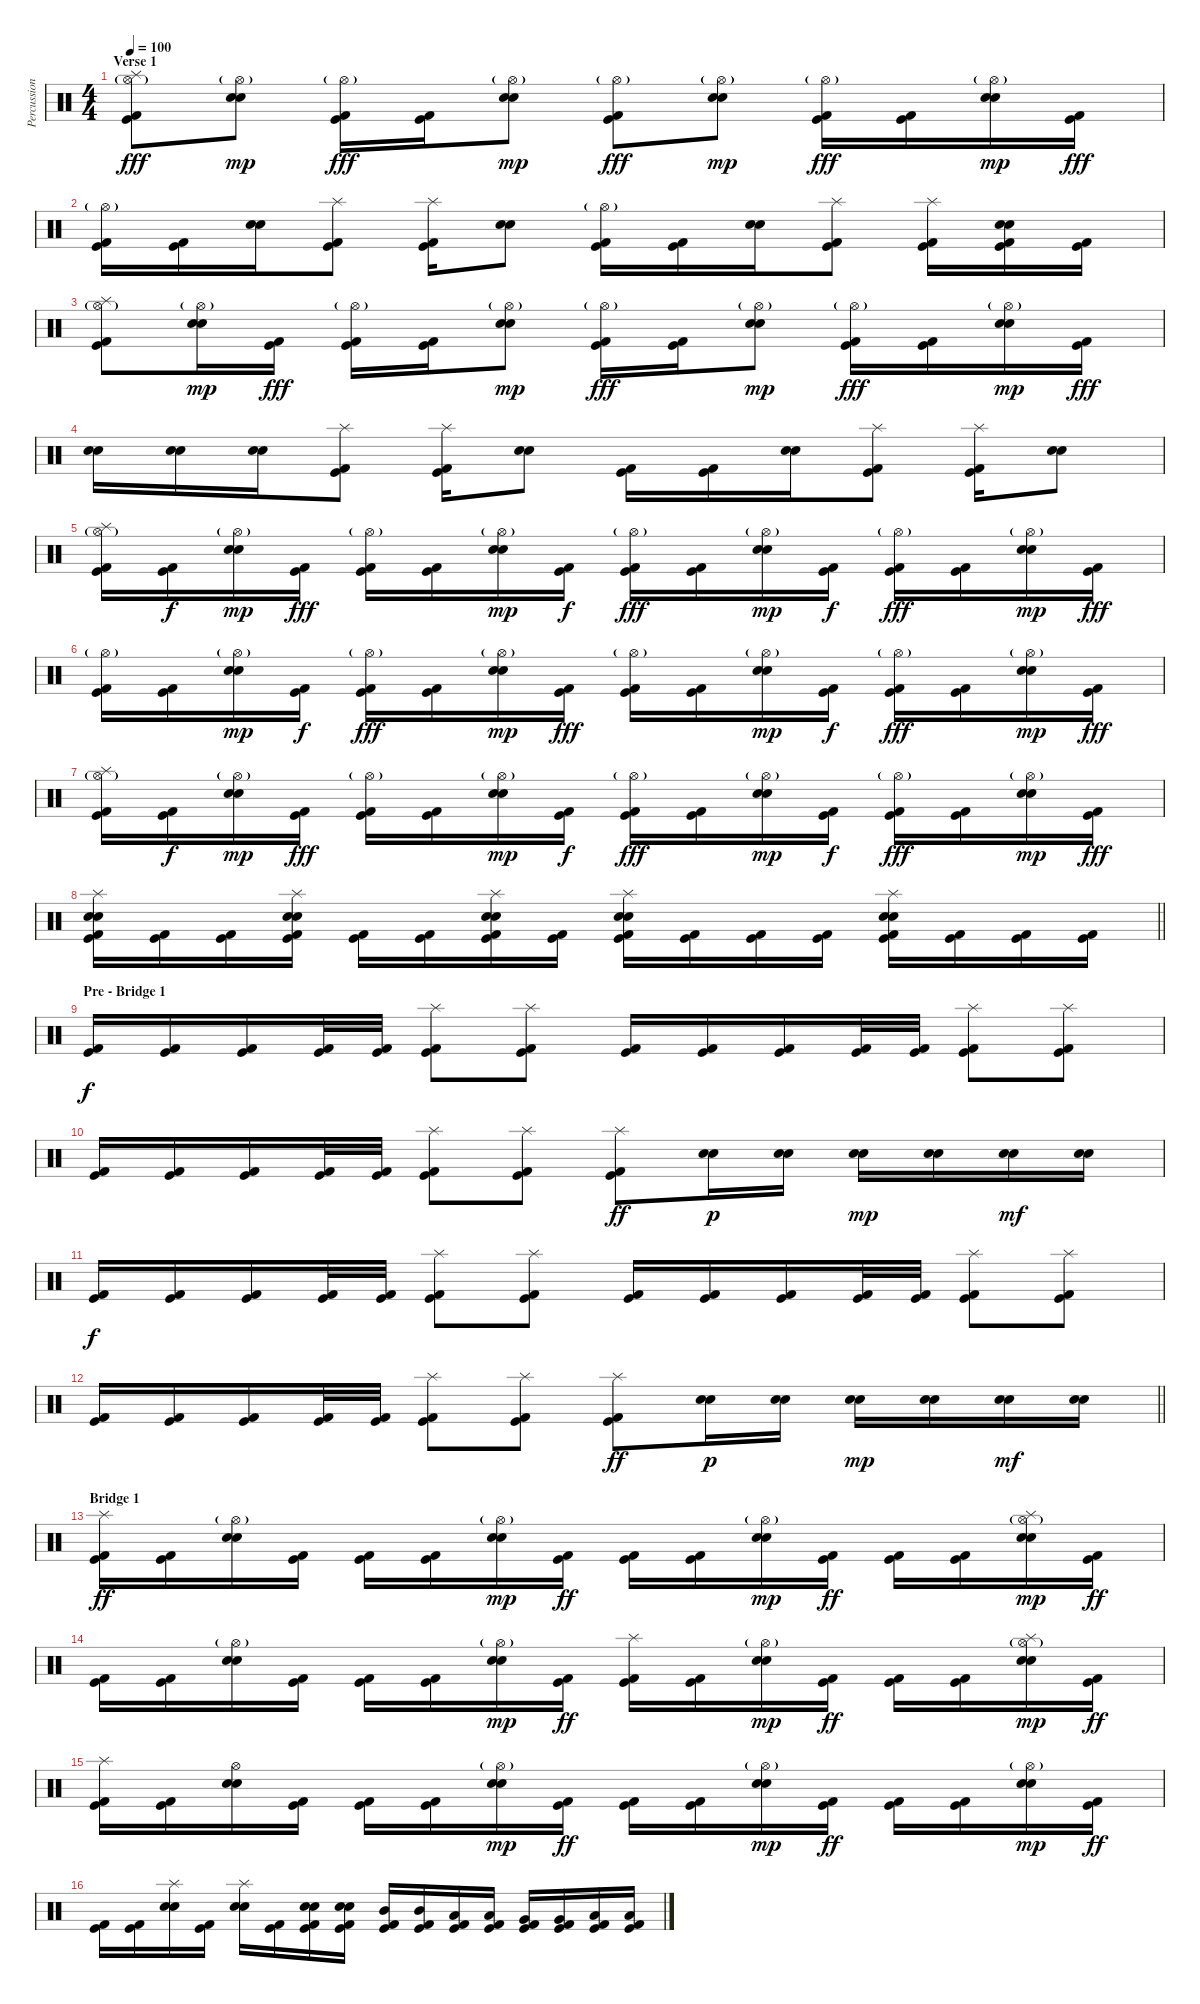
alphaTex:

\track ("Percussion" "Percussion") {instrument percussion}
\staff {score}
\articulation defaults
\ts (4 4)
\section ("" "Verse 1")
\tempo 100
\clef neutral
\ks c
("Splash (hit)" "Hi-Hat (open)"{g} "Kick (hit)" "Kick (hit) 2").8{dy fff} ("Electric Snare (hit)" "Snare (hit) 2" "Hi-Hat (open)"{g}).8{dy mp} ("Hi-Hat (open)"{g} "Kick (hit)" "Kick (hit) 2").16{dy fff} ("Kick (hit)" "Kick (hit) 2").16 ("Electric Snare (hit)" "Snare (hit) 2" "Hi-Hat (open)"{g}).8{dy mp} ("Hi-Hat (open)"{g} "Kick (hit)" "Kick (hit) 2").8{dy fff} ("Electric Snare (hit)" "Snare (hit) 2" "Hi-Hat (open)"{g}).8{dy mp} ("Hi-Hat (open)"{g} "Kick (hit)" "Kick (hit) 2").16{dy fff} ("Kick (hit)" "Kick (hit) 2").16 ("Electric Snare (hit)" "Snare (hit) 2" "Hi-Hat (open)"{g}).16{dy mp} ("Kick (hit)" "Kick (hit) 2").16{dy fff} |
("Hi-Hat (open)"{g} "Kick (hit)" "Kick (hit) 2").16 ("Kick (hit)" "Kick (hit) 2").16 ("Electric Snare (hit)" "Snare (hit) 2").16 ("Splash (hit)" "Kick (hit)" "Kick (hit) 2").8 ("Splash (hit)" "Kick (hit)" "Kick (hit) 2").16 ("Electric Snare (hit)" "Snare (hit) 2").8 ("Hi-Hat (open)"{g} "Kick (hit)" "Kick (hit) 2").16 ("Kick (hit)" "Kick (hit) 2").16 ("Electric Snare (hit)" "Snare (hit) 2").16 ("Splash (hit)" "Kick (hit)" "Kick (hit) 2").8 ("Splash (hit)" "Kick (hit)" "Kick (hit) 2").16 ("Electric Snare (hit)" "Snare (hit) 2" "Kick (hit)" "Kick (hit) 2").16 ("Kick (hit)" "Kick (hit) 2").16 |
("Splash (hit)" "Hi-Hat (open)"{g} "Kick (hit)" "Kick (hit) 2").8 ("Electric Snare (hit)" "Snare (hit) 2" "Hi-Hat (open)"{g}).16{dy mp} ("Kick (hit)" "Kick (hit) 2").16{dy fff} ("Hi-Hat (open)"{g} "Kick (hit)" "Kick (hit) 2").16 ("Kick (hit)" "Kick (hit) 2").16 ("Electric Snare (hit)" "Snare (hit) 2" "Hi-Hat (open)"{g}).8{dy mp} ("Hi-Hat (open)"{g} "Kick (hit)" "Kick (hit) 2").16{dy fff} ("Kick (hit)" "Kick (hit) 2").16 ("Electric Snare (hit)" "Snare (hit) 2" "Hi-Hat (open)"{g}).8{dy mp} ("Hi-Hat (open)"{g} "Kick (hit)" "Kick (hit) 2").16{dy fff} ("Kick (hit)" "Kick (hit) 2").16 ("Electric Snare (hit)" "Snare (hit) 2" "Hi-Hat (open)"{g}).16{dy mp} ("Kick (hit)" "Kick (hit) 2").16{dy fff} |
("Snare (hit) 2" "Electric Snare (hit)").16 ("Snare (hit) 2" "Electric Snare (hit)").16 ("Snare (hit) 2" "Electric Snare (hit)").16 ("Splash (hit)" "Kick (hit)" "Kick (hit) 2").8 ("Splash (hit)" "Kick (hit)" "Kick (hit) 2").16 ("Electric Snare (hit)" "Snare (hit) 2").8 ("Kick (hit)" "Kick (hit) 2").16 ("Kick (hit)" "Kick (hit) 2").16 ("Snare (hit) 2" "Electric Snare (hit)").16 ("Splash (hit)" "Kick (hit)" "Kick (hit) 2").8 ("Splash (hit)" "Kick (hit)" "Kick (hit) 2").16 ("Electric Snare (hit)" "Snare (hit) 2").8 |
("Splash (hit)" "Hi-Hat (open)"{g} "Kick (hit)" "Kick (hit) 2").16 ("Kick (hit)" "Kick (hit) 2").16{dy f} ("Electric Snare (hit)" "Snare (hit) 2" "Hi-Hat (open)"{g}).16{dy mp} ("Kick (hit)" "Kick (hit) 2").16{dy fff} ("Hi-Hat (open)"{g} "Kick (hit)" "Kick (hit) 2").16 ("Kick (hit)" "Kick (hit) 2").16 ("Electric Snare (hit)" "Snare (hit) 2" "Hi-Hat (open)"{g}).16{dy mp} ("Kick (hit)" "Kick (hit) 2").16{dy f} ("Hi-Hat (open)"{g} "Kick (hit)" "Kick (hit) 2").16{dy fff} ("Kick (hit)" "Kick (hit) 2").16 ("Electric Snare (hit)" "Snare (hit) 2" "Hi-Hat (open)"{g}).16{dy mp} ("Kick (hit)" "Kick (hit) 2").16{dy f} ("Hi-Hat (open)"{g} "Kick (hit)" "Kick (hit) 2").16{dy fff} ("Kick (hit)" "Kick (hit) 2").16 ("Electric Snare (hit)" "Snare (hit) 2" "Hi-Hat (open)"{g}).16{dy mp} ("Kick (hit)" "Kick (hit) 2").16{dy fff} |
("Hi-Hat (open)"{g} "Kick (hit)" "Kick (hit) 2").16 ("Kick (hit)" "Kick (hit) 2").16 ("Electric Snare (hit)" "Snare (hit) 2" "Hi-Hat (open)"{g}).16{dy mp} ("Kick (hit)" "Kick (hit) 2").16{dy f} ("Hi-Hat (open)"{g} "Kick (hit)" "Kick (hit) 2").16{dy fff} ("Kick (hit)" "Kick (hit) 2").16 ("Electric Snare (hit)" "Snare (hit) 2" "Hi-Hat (open)"{g}).16{dy mp} ("Kick (hit)" "Kick (hit) 2").16{dy fff} ("Hi-Hat (open)"{g} "Kick (hit)" "Kick (hit) 2").16 ("Kick (hit)" "Kick (hit) 2").16 ("Electric Snare (hit)" "Snare (hit) 2" "Hi-Hat (open)"{g}).16{dy mp} ("Kick (hit)" "Kick (hit) 2").16{dy f} ("Hi-Hat (open)"{g} "Kick (hit)" "Kick (hit) 2").16{dy fff} ("Kick (hit)" "Kick (hit) 2").16 ("Electric Snare (hit)" "Snare (hit) 2" "Hi-Hat (open)"{g}).16{dy mp} ("Kick (hit)" "Kick (hit) 2").16{dy fff} |
("Splash (hit)" "Hi-Hat (open)"{g} "Kick (hit)" "Kick (hit) 2").16 ("Kick (hit)" "Kick (hit) 2").16{dy f} ("Electric Snare (hit)" "Snare (hit) 2" "Hi-Hat (open)"{g}).16{dy mp} ("Kick (hit)" "Kick (hit) 2").16{dy fff} ("Hi-Hat (open)"{g} "Kick (hit)" "Kick (hit) 2").16 ("Kick (hit)" "Kick (hit) 2").16 ("Electric Snare (hit)" "Snare (hit) 2" "Hi-Hat (open)"{g}).16{dy mp} ("Kick (hit)" "Kick (hit) 2").16{dy f} ("Hi-Hat (open)"{g} "Kick (hit)" "Kick (hit) 2").16{dy fff} ("Kick (hit)" "Kick (hit) 2").16 ("Electric Snare (hit)" "Snare (hit) 2" "Hi-Hat (open)"{g}).16{dy mp} ("Kick (hit)" "Kick (hit) 2").16{dy f} ("Hi-Hat (open)"{g} "Kick (hit)" "Kick (hit) 2").16{dy fff} ("Kick (hit)" "Kick (hit) 2").16 ("Electric Snare (hit)" "Snare (hit) 2" "Hi-Hat (open)"{g}).16{dy mp} ("Kick (hit)" "Kick (hit) 2").16{dy fff} |
\barLineRight lightlight
("Splash (hit)" "Electric Snare (hit)" "Snare (hit) 2" "Kick (hit)" "Kick (hit) 2").16 ("Kick (hit)" "Kick (hit) 2").16 ("Kick (hit)" "Kick (hit) 2").16 ("Splash (hit)" "Electric Snare (hit)" "Snare (hit) 2" "Kick (hit)" "Kick (hit) 2").16 ("Kick (hit)" "Kick (hit) 2").16 ("Kick (hit)" "Kick (hit) 2").16 ("Splash (hit)" "Electric Snare (hit)" "Snare (hit) 2" "Kick (hit)" "Kick (hit) 2").16 ("Kick (hit)" "Kick (hit) 2").16 ("Splash (hit)" "Electric Snare (hit)" "Snare (hit) 2" "Kick (hit)" "Kick (hit) 2").16 ("Kick (hit)" "Kick (hit) 2").16 ("Kick (hit)" "Kick (hit) 2").16 ("Kick (hit)" "Kick (hit) 2").16 ("Splash (hit)" "Electric Snare (hit)" "Snare (hit) 2" "Kick (hit)" "Kick (hit) 2").16 ("Kick (hit)" "Kick (hit) 2").16 ("Kick (hit)" "Kick (hit) 2").16 ("Kick (hit)" "Kick (hit) 2").16 |
\section ("" "Pre - Bridge 1")
("Kick (hit)" "Kick (hit) 2").16{dy f} ("Kick (hit)" "Kick (hit) 2").16 ("Kick (hit)" "Kick (hit) 2").16 ("Kick (hit)" "Kick (hit) 2").32 ("Kick (hit)" "Kick (hit) 2").32 ("Splash (hit)" "Kick (hit)" "Kick (hit) 2").8 ("Splash (hit)" "Kick (hit)" "Kick (hit) 2").8 ("Kick (hit)" "Kick (hit) 2").16 ("Kick (hit)" "Kick (hit) 2").16 ("Kick (hit)" "Kick (hit) 2").16 ("Kick (hit)" "Kick (hit) 2").32 ("Kick (hit)" "Kick (hit) 2").32 ("Splash (hit)" "Kick (hit)" "Kick (hit) 2").8 ("Splash (hit)" "Kick (hit)" "Kick (hit) 2").8 |
("Kick (hit)" "Kick (hit) 2").16 ("Kick (hit)" "Kick (hit) 2").16 ("Kick (hit)" "Kick (hit) 2").16 ("Kick (hit)" "Kick (hit) 2").32 ("Kick (hit)" "Kick (hit) 2").32 ("Splash (hit)" "Kick (hit)" "Kick (hit) 2").8 ("Splash (hit)" "Kick (hit)" "Kick (hit) 2").8 ("Splash (hit)" "Kick (hit)" "Kick (hit) 2").8{dy ff} ("Snare (hit) 2" "Electric Snare (hit)").16{dy p} ("Snare (hit) 2" "Electric Snare (hit)").16 ("Snare (hit) 2" "Electric Snare (hit)").16{dy mp} ("Snare (hit) 2" "Electric Snare (hit)").16 ("Snare (hit) 2" "Electric Snare (hit)").16{dy mf} ("Snare (hit) 2" "Electric Snare (hit)").16 |
("Kick (hit)" "Kick (hit) 2").16{dy f} ("Kick (hit)" "Kick (hit) 2").16 ("Kick (hit)" "Kick (hit) 2").16 ("Kick (hit)" "Kick (hit) 2").32 ("Kick (hit)" "Kick (hit) 2").32 ("Splash (hit)" "Kick (hit)" "Kick (hit) 2").8 ("Splash (hit)" "Kick (hit)" "Kick (hit) 2").8 ("Kick (hit)" "Kick (hit) 2").16 ("Kick (hit)" "Kick (hit) 2").16 ("Kick (hit)" "Kick (hit) 2").16 ("Kick (hit)" "Kick (hit) 2").32 ("Kick (hit)" "Kick (hit) 2").32 ("Splash (hit)" "Kick (hit)" "Kick (hit) 2").8 ("Splash (hit)" "Kick (hit)" "Kick (hit) 2").8 |
\barLineRight lightlight
("Kick (hit)" "Kick (hit) 2").16 ("Kick (hit)" "Kick (hit) 2").16 ("Kick (hit)" "Kick (hit) 2").16 ("Kick (hit)" "Kick (hit) 2").32 ("Kick (hit)" "Kick (hit) 2").32 ("Splash (hit)" "Kick (hit)" "Kick (hit) 2").8 ("Splash (hit)" "Kick (hit)" "Kick (hit) 2").8 ("Splash (hit)" "Kick (hit)" "Kick (hit) 2").8{dy ff} ("Snare (hit) 2" "Electric Snare (hit)").16{dy p} ("Snare (hit) 2" "Electric Snare (hit)").16 ("Snare (hit) 2" "Electric Snare (hit)").16{dy mp} ("Snare (hit) 2" "Electric Snare (hit)").16 ("Snare (hit) 2" "Electric Snare (hit)").16{dy mf} ("Snare (hit) 2" "Electric Snare (hit)").16 |
\section ("" "Bridge 1")
("Splash (hit)" "Kick (hit)" "Kick (hit) 2").16{dy ff} ("Kick (hit)" "Kick (hit) 2").16 ("Hi-Hat (open)"{g} "Electric Snare (hit)" "Snare (hit) 2").16 ("Kick (hit)" "Kick (hit) 2").16 ("Kick (hit)" "Kick (hit) 2").16 ("Kick (hit)" "Kick (hit) 2").16 ("Hi-Hat (open)"{g} "Electric Snare (hit)" "Snare (hit) 2").16{dy mp} ("Kick (hit)" "Kick (hit) 2").16{dy ff} ("Kick (hit)" "Kick (hit) 2").16 ("Kick (hit)" "Kick (hit) 2").16 ("Hi-Hat (open)"{g} "Electric Snare (hit)" "Snare (hit) 2").16{dy mp} ("Kick (hit)" "Kick (hit) 2").16{dy ff} ("Kick (hit)" "Kick (hit) 2").16 ("Kick (hit)" "Kick (hit) 2").16 ("Hi-Hat (open)"{g} "Electric Snare (hit)" "Snare (hit) 2" "Splash (hit)").16{dy mp} ("Kick (hit)" "Kick (hit) 2").16{dy ff} |
("Kick (hit)" "Kick (hit) 2").16 ("Kick (hit)" "Kick (hit) 2").16 ("Hi-Hat (open)"{g} "Electric Snare (hit)" "Snare (hit) 2").16 ("Kick (hit)" "Kick (hit) 2").16 ("Kick (hit)" "Kick (hit) 2").16 ("Kick (hit)" "Kick (hit) 2").16 ("Hi-Hat (open)"{g} "Electric Snare (hit)" "Snare (hit) 2").16{dy mp} ("Kick (hit)" "Kick (hit) 2").16{dy ff} ("Splash (hit)" "Kick (hit)" "Kick (hit) 2").16 ("Kick (hit)" "Kick (hit) 2").16 ("Hi-Hat (open)"{g} "Electric Snare (hit)" "Snare (hit) 2").16{dy mp} ("Kick (hit)" "Kick (hit) 2").16{dy ff} ("Kick (hit)" "Kick (hit) 2").16 ("Kick (hit)" "Kick (hit) 2").16 ("Hi-Hat (open)"{g} "Electric Snare (hit)" "Snare (hit) 2" "Splash (hit)").16{dy mp} ("Kick (hit)" "Kick (hit) 2").16{dy ff} |
("Splash (hit)" "Kick (hit)" "Kick (hit) 2").16 ("Kick (hit)" "Kick (hit) 2").16 ("Hi-Hat (open)" "Electric Snare (hit)" "Snare (hit) 2").16 ("Kick (hit)" "Kick (hit) 2").16 ("Kick (hit)" "Kick (hit) 2").16 ("Kick (hit)" "Kick (hit) 2").16 ("Hi-Hat (open)"{g} "Electric Snare (hit)" "Snare (hit) 2").16{dy mp} ("Kick (hit)" "Kick (hit) 2").16{dy ff} ("Kick (hit)" "Kick (hit) 2").16 ("Kick (hit)" "Kick (hit) 2").16 ("Hi-Hat (open)"{g} "Electric Snare (hit)" "Snare (hit) 2").16{dy mp} ("Kick (hit)" "Kick (hit) 2").16{dy ff} ("Kick (hit)" "Kick (hit) 2").16 ("Kick (hit)" "Kick (hit) 2").16 ("Hi-Hat (open)"{g} "Electric Snare (hit)" "Snare (hit) 2").16{dy mp} ("Kick (hit)" "Kick (hit) 2").16{dy ff} |
("Kick (hit)" "Kick (hit) 2").16 ("Kick (hit)" "Kick (hit) 2").16 ("Splash (hit)" "Electric Snare (hit)" "Snare (hit) 2").16 ("Kick (hit)" "Kick (hit) 2").16 ("Splash (hit)" "Electric Snare (hit)" "Snare (hit) 2").16 ("Kick (hit)" "Kick (hit) 2").16 ("Electric Snare (hit)" "Snare (hit) 2" "Kick (hit)" "Kick (hit) 2").16 ("Electric Snare (hit)" "Snare (hit) 2" "Kick (hit)" "Kick (hit) 2").16 ("Mid Tom (hit)" "Kick (hit)" "Kick (hit) 2").16 ("Mid Tom (hit)" "Kick (hit)" "Kick (hit) 2").16 ("Low Tom (hit)" "Kick (hit)" "Kick (hit) 2").16 ("Low Tom (hit)" "Kick (hit)" "Kick (hit) 2").16 ("Very Low Tom (hit)" "Kick (hit)" "Kick (hit) 2").16 ("Very Low Tom (hit)" "Kick (hit)" "Kick (hit) 2").16 ("Low Floor Tom (hit)" "Kick (hit)" "Kick (hit) 2").16 ("Low Floor Tom (hit)" "Kick (hit)" "Kick (hit) 2").16
